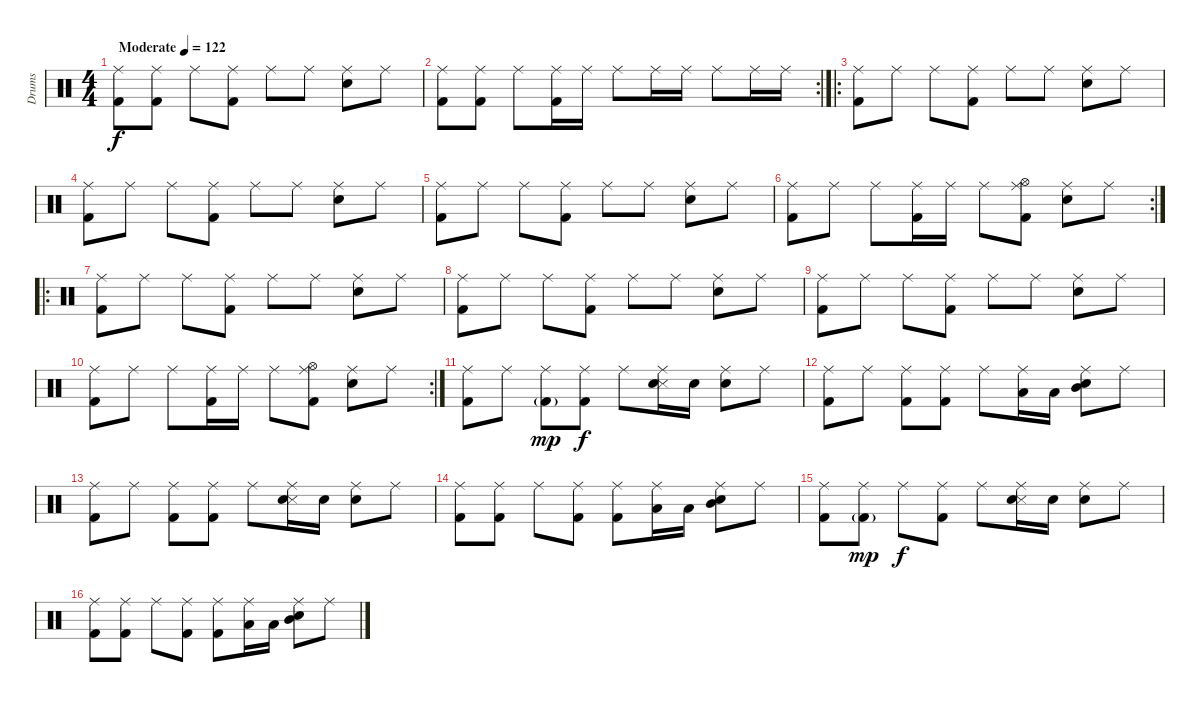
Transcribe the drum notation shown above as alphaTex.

\track ("Drums" "Drums") {instrument percussion}
\staff {score}
\articulation defaults
\ts (4 4)
\tempo (122 "Moderate")
\clef neutral
\ks c
("Ride (middle)" "Kick (hit) 2").8{dy f} ("Ride (middle)" "Kick (hit) 2").8 "Ride (middle)".8 ("Ride (middle)" "Kick (hit) 2").8 "Ride (middle)".8 "Ride (middle)".8 ("Ride (middle)" "Snare (hit) 2").8 "Ride (middle)".8 |
\rc 2
("Ride (middle)" "Kick (hit) 2").8 ("Ride (middle)" "Kick (hit) 2").8 "Ride (middle)".8 ("Ride (middle)" "Kick (hit) 2").16 "Ride (middle)".16 "Ride (middle)".8 "Ride (middle)".16 "Ride (middle)".16 "Ride (middle)".8 "Ride (middle)".16 "Ride (middle)".16 |
\ro
("Ride (middle)" "Kick (hit) 2").8 "Ride (middle)".8 "Ride (middle)".8 ("Ride (middle)" "Kick (hit) 2").8 "Ride (middle)".8 "Ride (middle)".8 ("Ride (middle)" "Snare (hit) 2").8 "Ride (middle)".8 |
("Ride (middle)" "Kick (hit) 2").8 "Ride (middle)".8 "Ride (middle)".8 ("Ride (middle)" "Kick (hit) 2").8 "Ride (middle)".8 "Ride (middle)".8 ("Ride (middle)" "Snare (hit) 2").8 "Ride (middle)".8 |
("Ride (middle)" "Kick (hit) 2").8 "Ride (middle)".8 "Ride (middle)".8 ("Ride (middle)" "Kick (hit) 2").8 "Ride (middle)".8 "Ride (middle)".8 ("Ride (middle)" "Snare (hit) 2").8 "Ride (middle)".8 |
\rc 2
("Ride (middle)" "Kick (hit) 2").8 "Ride (middle)".8 "Ride (middle)".8 ("Ride (middle)" "Kick (hit) 2").16 "Ride (middle)".16 "Ride (middle)".8 ("Ride (middle)" "Hi-Hat (open)" "Kick (hit) 2").8 ("Ride (middle)" "Snare (hit) 2").8 "Ride (middle)".8 |
\ro
("Ride (middle)" "Kick (hit) 2").8 "Ride (middle)".8 "Ride (middle)".8 ("Ride (middle)" "Kick (hit) 2").8 "Ride (middle)".8 "Ride (middle)".8 ("Ride (middle)" "Snare (hit) 2").8 "Ride (middle)".8 |
("Ride (middle)" "Kick (hit) 2").8 "Ride (middle)".8 "Ride (middle)".8 ("Ride (middle)" "Kick (hit) 2").8 "Ride (middle)".8 "Ride (middle)".8 ("Ride (middle)" "Snare (hit) 2").8 "Ride (middle)".8 |
("Ride (middle)" "Kick (hit) 2").8 "Ride (middle)".8 "Ride (middle)".8 ("Ride (middle)" "Kick (hit) 2").8 "Ride (middle)".8 "Ride (middle)".8 ("Ride (middle)" "Snare (hit) 2").8 "Ride (middle)".8 |
\rc 2
("Ride (middle)" "Kick (hit) 2").8 "Ride (middle)".8 "Ride (middle)".8 ("Ride (middle)" "Kick (hit) 2").16 "Ride (middle)".16 "Ride (middle)".8 ("Ride (middle)" "Hi-Hat (open)" "Kick (hit) 2").8 ("Ride (middle)" "Snare (hit) 2").8 "Ride (middle)".8 |
("Ride (middle)" "Kick (hit) 2").8 "Ride (middle)".8 ("Ride (middle)" "Kick (hit) 2"{g}).8{dy mp} ("Ride (middle)" "Kick (hit) 2").8{dy f} "Ride (middle)".8 ("Ride (middle)" "Snare (side stick) 3" "Snare (hit) 2").16 "Snare (hit) 2".16 ("Ride (middle)" "Snare (hit) 2").8 "Ride (middle)".8 |
("Ride (middle)" "Kick (hit) 2").8 "Ride (middle)".8 ("Ride (middle)" "Kick (hit) 2").8 ("Ride (middle)" "Kick (hit) 2").8 "Ride (middle)".8 ("Ride (middle)" "Low Tom (hit)").16 "Low Tom (hit)".16 ("Ride (middle)" "Mid Tom (hit)" "Snare (hit) 2").8 "Ride (middle)".8 |
("Ride (middle)" "Kick (hit) 2").8 "Ride (middle)".8 ("Ride (middle)" "Kick (hit) 2").8 ("Ride (middle)" "Kick (hit) 2").8 "Ride (middle)".8 ("Ride (middle)" "Snare (side stick) 3" "Snare (hit) 2").16 "Snare (hit) 2".16 ("Ride (middle)" "Snare (hit) 2").8 "Ride (middle)".8 |
("Ride (middle)" "Kick (hit) 2").8 ("Ride (middle)" "Kick (hit) 2").8 "Ride (middle)".8 ("Ride (middle)" "Kick (hit) 2").8 ("Ride (middle)" "Kick (hit) 2").8 ("Ride (middle)" "Low Tom (hit)").16 "Low Tom (hit)".16 ("Ride (middle)" "Mid Tom (hit)" "Snare (hit) 2").8 "Ride (middle)".8 |
("Ride (middle)" "Kick (hit) 2").8 ("Ride (middle)" "Kick (hit) 2"{g}).8{dy mp} "Ride (middle)".8{dy f} ("Ride (middle)" "Kick (hit) 2").8 "Ride (middle)".8 ("Ride (middle)" "Snare (side stick) 3" "Snare (hit) 2").16 "Snare (hit) 2".16 ("Ride (middle)" "Snare (hit) 2").8 "Ride (middle)".8 |
("Ride (middle)" "Kick (hit) 2").8 ("Ride (middle)" "Kick (hit) 2").8 "Ride (middle)".8 ("Ride (middle)" "Kick (hit) 2").8 ("Ride (middle)" "Kick (hit) 2").8 ("Ride (middle)" "Low Tom (hit)").16 "Low Tom (hit)".16 ("Ride (middle)" "Mid Tom (hit)" "Snare (hit) 2").8 "Ride (middle)".8
